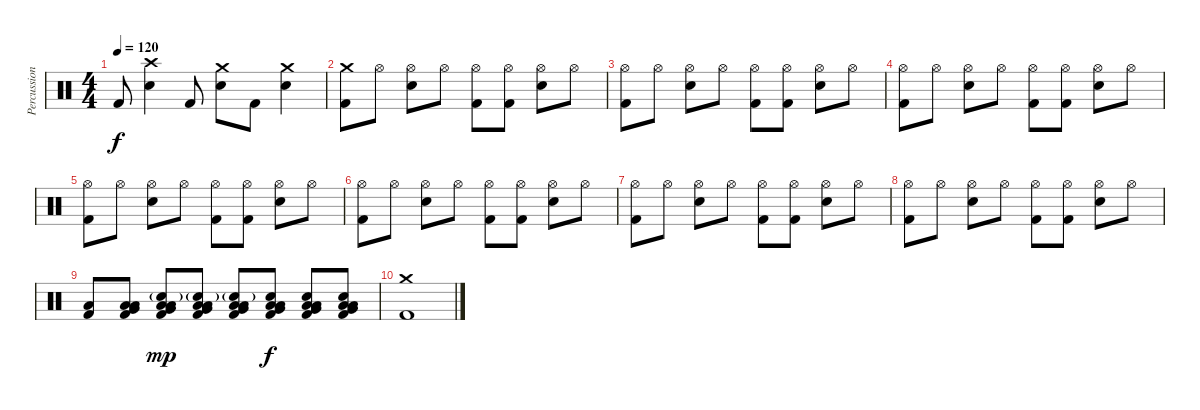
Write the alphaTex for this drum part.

\track ("Percussions" "Percussion") {instrument percussion}
\staff {score}
\articulation defaults
\ts (4 4)
\tempo 120
\clef neutral
\ks c "Kick (hit) 2".8{dy f}
("Crash high (hit)" "Electric Snare (hit)").4 "Kick (hit) 2".8 ("Crash medium (hit)" "Electric Snare (hit)").8 "Kick (hit) 2".8 ("Crash medium (hit)" "Electric Snare (hit)").4 |
("Crash medium (hit)" "Kick (hit) 2").8 "Hi-Hat (open)".8 ("Hi-Hat (open)" "Electric Snare (hit)").8 "Hi-Hat (open)".8 ("Hi-Hat (open)" "Kick (hit) 2").8 ("Hi-Hat (open)" "Kick (hit) 2").8 ("Hi-Hat (open)" "Electric Snare (hit)").8 "Hi-Hat (open)".8 |
("Hi-Hat (open)" "Kick (hit) 2").8 "Hi-Hat (open)".8 ("Hi-Hat (open)" "Electric Snare (hit)").8 "Hi-Hat (open)".8 ("Hi-Hat (open)" "Kick (hit) 2").8 ("Hi-Hat (open)" "Kick (hit) 2").8 ("Hi-Hat (open)" "Electric Snare (hit)").8 "Hi-Hat (open)".8 |
("Hi-Hat (open)" "Kick (hit) 2").8 "Hi-Hat (open)".8 ("Hi-Hat (open)" "Electric Snare (hit)").8 "Hi-Hat (open)".8 ("Hi-Hat (open)" "Kick (hit) 2").8 ("Hi-Hat (open)" "Kick (hit) 2").8 ("Hi-Hat (open)" "Electric Snare (hit)").8 "Hi-Hat (open)".8 |
("Hi-Hat (open)" "Kick (hit) 2").8 "Hi-Hat (open)".8 ("Hi-Hat (open)" "Electric Snare (hit)").8 "Hi-Hat (open)".8 ("Hi-Hat (open)" "Kick (hit) 2").8 ("Hi-Hat (open)" "Kick (hit) 2").8 ("Hi-Hat (open)" "Electric Snare (hit)").8 "Hi-Hat (open)".8 |
("Hi-Hat (open)" "Kick (hit) 2").8 "Hi-Hat (open)".8 ("Hi-Hat (open)" "Electric Snare (hit)").8 "Hi-Hat (open)".8 ("Hi-Hat (open)" "Kick (hit) 2").8 ("Hi-Hat (open)" "Kick (hit) 2").8 ("Hi-Hat (open)" "Electric Snare (hit)").8 "Hi-Hat (open)".8 |
("Hi-Hat (open)" "Kick (hit) 2").8 "Hi-Hat (open)".8 ("Hi-Hat (open)" "Electric Snare (hit)").8 "Hi-Hat (open)".8 ("Hi-Hat (open)" "Kick (hit) 2").8 ("Hi-Hat (open)" "Kick (hit) 2").8 ("Hi-Hat (open)" "Electric Snare (hit)").8 "Hi-Hat (open)".8 |
("Hi-Hat (open)" "Kick (hit) 2").8 "Hi-Hat (open)".8 ("Hi-Hat (open)" "Electric Snare (hit)").8 "Hi-Hat (open)".8 ("Hi-Hat (open)" "Kick (hit) 2").8 ("Hi-Hat (open)" "Kick (hit) 2").8 ("Hi-Hat (open)" "Electric Snare (hit)").8 "Hi-Hat (open)".8 |
("Low Floor Tom (hit)" "Kick (hit) 2").8 ("Low Tom (hit)" "Very Low Tom (hit)" "Low Floor Tom (hit)" "Kick (hit) 2").8 ("Low Tom (hit)" "Electric Snare (hit)"{g} "Very Low Tom (hit)" "Low Floor Tom (hit)" "Kick (hit) 2").8{dy mp} ("Low Tom (hit)" "Electric Snare (hit)"{g} "Very Low Tom (hit)" "Low Floor Tom (hit)" "Kick (hit) 2").8 ("Low Tom (hit)" "Electric Snare (hit)"{g} "Very Low Tom (hit)" "Low Floor Tom (hit)" "Kick (hit) 2").8 ("Low Tom (hit)" "Electric Snare (hit)" "Very Low Tom (hit)" "Low Floor Tom (hit)" "Kick (hit) 2").8{dy f} ("Low Tom (hit)" "Electric Snare (hit)" "Very Low Tom (hit)" "Low Floor Tom (hit)" "Kick (hit) 2").8 ("Low Tom (hit)" "Electric Snare (hit)" "Very Low Tom (hit)" "Low Floor Tom (hit)" "Kick (hit) 2").8 |
("Crash medium (hit)" "Kick (hit) 2").1
